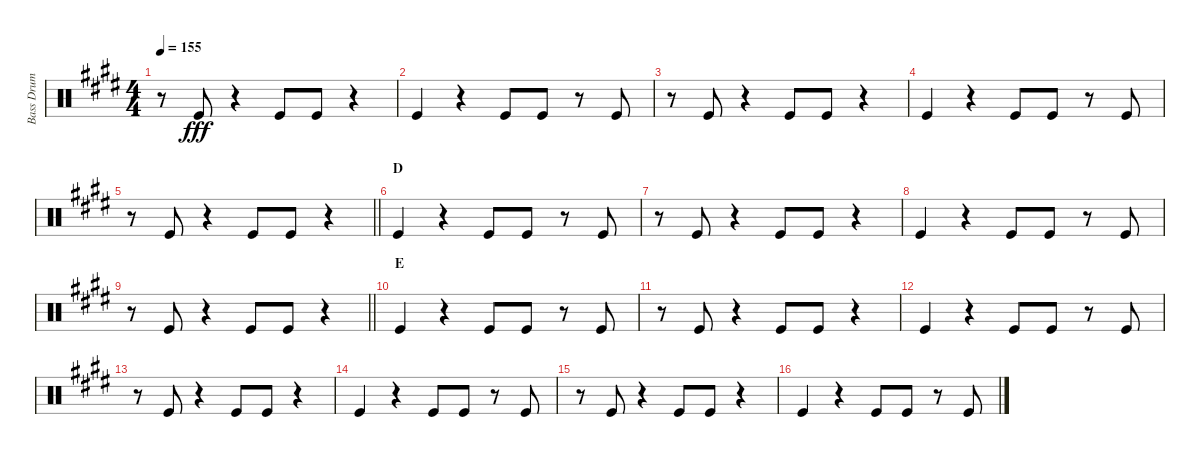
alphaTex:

\track ("Bass Drum" "Bass Drum") {instrument percussion}
\staff {score}
\articulation defaults
\ts (4 4)
\tempo 155
\clef neutral
\ks e
r.8{dy fff} "Kick (hit)".8 r.4 "Kick (hit)".8 "Kick (hit)".8 r.4 |
"Kick (hit)".4 r.4 "Kick (hit)".8 "Kick (hit)".8 r.8 "Kick (hit)".8 |
r.8 "Kick (hit)".8 r.4 "Kick (hit)".8 "Kick (hit)".8 r.4 |
"Kick (hit)".4 r.4 "Kick (hit)".8 "Kick (hit)".8 r.8 "Kick (hit)".8 |
\barLineRight lightlight
r.8 "Kick (hit)".8 r.4 "Kick (hit)".8 "Kick (hit)".8 r.4 |
\section ("" "D")
"Kick (hit)".4 r.4 "Kick (hit)".8 "Kick (hit)".8 r.8 "Kick (hit)".8 |
r.8 "Kick (hit)".8 r.4 "Kick (hit)".8 "Kick (hit)".8 r.4 |
"Kick (hit)".4 r.4 "Kick (hit)".8 "Kick (hit)".8 r.8 "Kick (hit)".8 |
\barLineRight lightlight
r.8 "Kick (hit)".8 r.4 "Kick (hit)".8 "Kick (hit)".8 r.4 |
\section ("" "E")
"Kick (hit)".4 r.4 "Kick (hit)".8 "Kick (hit)".8 r.8 "Kick (hit)".8 |
r.8 "Kick (hit)".8 r.4 "Kick (hit)".8 "Kick (hit)".8 r.4 |
"Kick (hit)".4 r.4 "Kick (hit)".8 "Kick (hit)".8 r.8 "Kick (hit)".8 |
r.8 "Kick (hit)".8 r.4 "Kick (hit)".8 "Kick (hit)".8 r.4 |
"Kick (hit)".4 r.4 "Kick (hit)".8 "Kick (hit)".8 r.8 "Kick (hit)".8 |
r.8 "Kick (hit)".8 r.4 "Kick (hit)".8 "Kick (hit)".8 r.4 |
"Kick (hit)".4 r.4 "Kick (hit)".8 "Kick (hit)".8 r.8 "Kick (hit)".8
